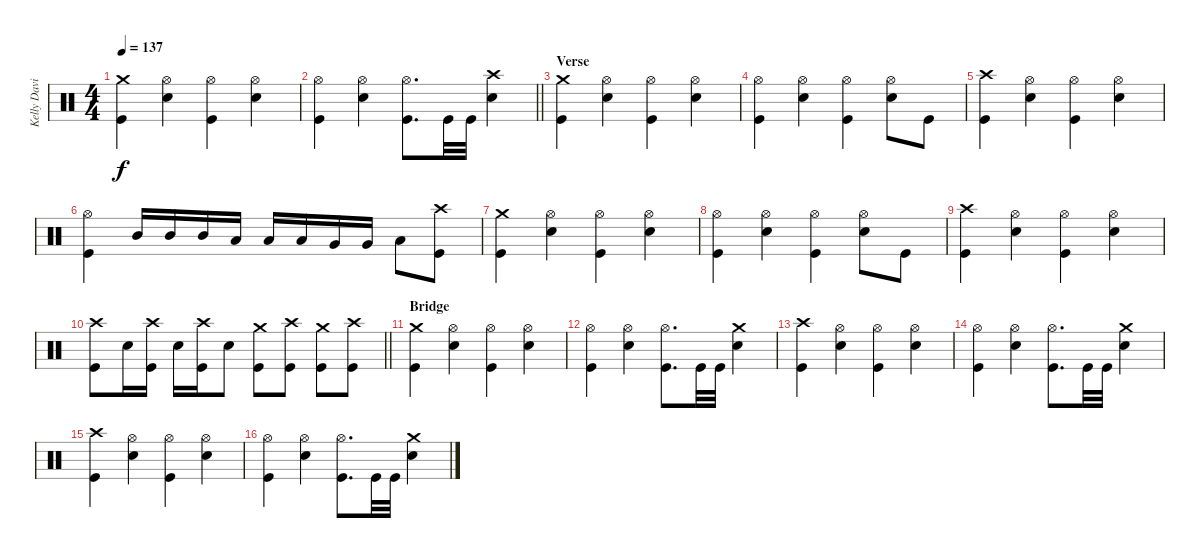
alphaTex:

\track ("Kelly David Smith" "Kelly Davi") {instrument percussion}
\staff {score}
\articulation defaults
\ts (4 4)
\tempo 137
\clef neutral
\ks c
("Crash medium (hit)" "Kick (hit)").4{dy f} ("Hi-Hat (open)" "Electric Snare (hit)").4 ("Hi-Hat (open)" "Kick (hit)").4 ("Hi-Hat (open)" "Electric Snare (hit)").4 |
\barLineRight lightlight
("Hi-Hat (open)" "Kick (hit)").4 ("Hi-Hat (open)" "Electric Snare (hit)").4 ("Hi-Hat (open)" "Kick (hit)").8{d} "Kick (hit)".32 "Kick (hit)".32 ("Crash high (hit)" "Electric Snare (hit)").4 |
\section ("" "Verse")
("Crash medium (hit)" "Kick (hit)").4 ("Hi-Hat (open)" "Electric Snare (hit)").4 ("Hi-Hat (open)" "Kick (hit)").4 ("Hi-Hat (open)" "Electric Snare (hit)").4 |
("Hi-Hat (open)" "Kick (hit)").4 ("Hi-Hat (open)" "Electric Snare (hit)").4 ("Hi-Hat (open)" "Kick (hit)").4 ("Hi-Hat (open)" "Electric Snare (hit)").8 "Kick (hit)".8 |
("Crash high (hit)" "Kick (hit)").4 ("Hi-Hat (open)" "Electric Snare (hit)").4 ("Hi-Hat (open)" "Kick (hit)").4 ("Hi-Hat (open)" "Electric Snare (hit)").4 |
("Hi-Hat (open)" "Kick (hit)").4 "Mid Tom (hit)".16 "Mid Tom (hit)".16 "Mid Tom (hit)".16 "Low Tom (hit)".16 "Low Tom (hit)".16 "Low Tom (hit)".16 "Very Low Tom (hit)".16 "Very Low Tom (hit)".16 "Low Floor Tom (hit)".8 ("Crash high (hit)" "Kick (hit)").8 |
("Crash medium (hit)" "Kick (hit)").4 ("Hi-Hat (open)" "Electric Snare (hit)").4 ("Hi-Hat (open)" "Kick (hit)").4 ("Hi-Hat (open)" "Electric Snare (hit)").4 |
("Hi-Hat (open)" "Kick (hit)").4 ("Hi-Hat (open)" "Electric Snare (hit)").4 ("Hi-Hat (open)" "Kick (hit)").4 ("Hi-Hat (open)" "Electric Snare (hit)").8 "Kick (hit)".8 |
("Crash high (hit)" "Kick (hit)").4 ("Hi-Hat (open)" "Electric Snare (hit)").4 ("Hi-Hat (open)" "Kick (hit)").4 ("Hi-Hat (open)" "Electric Snare (hit)").4 |
\barLineRight lightlight
("Crash high (hit)" "Kick (hit)").8 "Electric Snare (hit)".16 ("Crash high (hit)" "Kick (hit)").16 "Electric Snare (hit)".16 ("Crash high (hit)" "Kick (hit)").16 "Electric Snare (hit)".8 ("Crash medium (hit)" "Kick (hit)").8 ("Crash high (hit)" "Kick (hit)").8 ("Crash medium (hit)" "Kick (hit)").8 ("Crash high (hit)" "Kick (hit)").8 |
\section ("" "Bridge")
("Crash medium (hit)" "Kick (hit)").4 ("Hi-Hat (open)" "Electric Snare (hit)").4 ("Hi-Hat (open)" "Kick (hit)").4 ("Hi-Hat (open)" "Electric Snare (hit)").4 |
("Hi-Hat (open)" "Kick (hit)").4 ("Hi-Hat (open)" "Electric Snare (hit)").4 ("Hi-Hat (open)" "Kick (hit)").8{d} "Kick (hit)".32 "Kick (hit)".32 ("Crash medium (hit)" "Electric Snare (hit)").4 |
("Crash high (hit)" "Kick (hit)").4 ("Hi-Hat (open)" "Electric Snare (hit)").4 ("Hi-Hat (open)" "Kick (hit)").4 ("Hi-Hat (open)" "Electric Snare (hit)").4 |
("Hi-Hat (open)" "Kick (hit)").4 ("Hi-Hat (open)" "Electric Snare (hit)").4 ("Hi-Hat (open)" "Kick (hit)").8{d} "Kick (hit)".32 "Kick (hit)".32 ("Crash medium (hit)" "Electric Snare (hit)").4 |
("Crash high (hit)" "Kick (hit)").4 ("Hi-Hat (open)" "Electric Snare (hit)").4 ("Hi-Hat (open)" "Kick (hit)").4 ("Hi-Hat (open)" "Electric Snare (hit)").4 |
("Hi-Hat (open)" "Kick (hit)").4 ("Hi-Hat (open)" "Electric Snare (hit)").4 ("Hi-Hat (open)" "Kick (hit)").8{d} "Kick (hit)".32 "Kick (hit)".32 ("Crash medium (hit)" "Electric Snare (hit)").4
